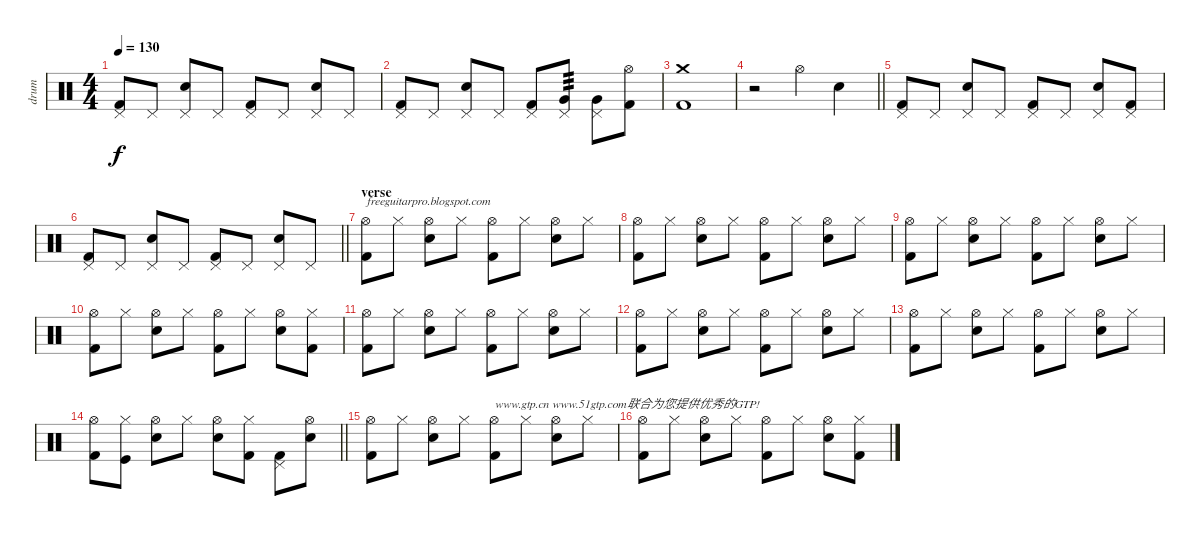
\track ("drum" "drum") {instrument percussion}
\staff {score}
\articulation defaults
\ts (4 4)
\tempo 130
\clef neutral
\ks c
("Pedal Hi-Hat (hit)" "Kick (hit) 2").8{dy f} "Pedal Hi-Hat (hit)".8 ("Pedal Hi-Hat (hit)" "Electric Snare (hit)").8 "Pedal Hi-Hat (hit)".8 ("Pedal Hi-Hat (hit)" "Kick (hit) 2").8 "Pedal Hi-Hat (hit)".8 ("Pedal Hi-Hat (hit)" "Electric Snare (hit)").8 "Pedal Hi-Hat (hit)".8 |
("Pedal Hi-Hat (hit)" "Kick (hit) 2").8 "Pedal Hi-Hat (hit)".8 ("Pedal Hi-Hat (hit)" "Electric Snare (hit)").8 "Pedal Hi-Hat (hit)".8 ("Pedal Hi-Hat (hit)" "Kick (hit) 2").8 ("Very Low Tom (hit)" "Pedal Hi-Hat (hit)").8{tp 3} ("Very Low Tom (hit)" "Pedal Hi-Hat (hit)").8 ("Hi-Hat (open)" "Kick (hit) 2").8 |
("Crash medium (hit)" "Kick (hit) 2").1 |
\barLineRight lightlight
r.2 "Hi-Hat (open)".4 "Electric Snare (hit)".4 |
("Pedal Hi-Hat (hit)" "Kick (hit) 2").8 "Pedal Hi-Hat (hit)".8 ("Pedal Hi-Hat (hit)" "Electric Snare (hit)").8 "Pedal Hi-Hat (hit)".8 ("Pedal Hi-Hat (hit)" "Kick (hit) 2").8 "Pedal Hi-Hat (hit)".8 ("Pedal Hi-Hat (hit)" "Electric Snare (hit)").8 ("Pedal Hi-Hat (hit)" "Kick (hit) 2").8 |
\barLineRight lightlight
("Pedal Hi-Hat (hit)" "Kick (hit) 2").8 "Pedal Hi-Hat (hit)".8 ("Pedal Hi-Hat (hit)" "Electric Snare (hit)").8 "Pedal Hi-Hat (hit)".8 ("Pedal Hi-Hat (hit)" "Kick (hit) 2").8 "Pedal Hi-Hat (hit)".8 ("Pedal Hi-Hat (hit)" "Electric Snare (hit)").8 "Pedal Hi-Hat (hit)".8 |
\section ("" "verse")
("Hi-Hat (open)" "Kick (hit) 2").8{txt "freeguitarpro.blogspot.com"} "Hi-Hat (closed)".8 ("Hi-Hat (open)" "Electric Snare (hit)").8 "Hi-Hat (closed)".8 ("Hi-Hat (open)" "Kick (hit) 2").8 "Hi-Hat (closed)".8 ("Hi-Hat (open)" "Electric Snare (hit)").8 "Hi-Hat (closed)".8 |
("Hi-Hat (open)" "Kick (hit) 2").8 "Hi-Hat (closed)".8 ("Hi-Hat (open)" "Electric Snare (hit)").8 "Hi-Hat (closed)".8 ("Hi-Hat (open)" "Kick (hit) 2").8 "Hi-Hat (closed)".8 ("Hi-Hat (open)" "Electric Snare (hit)").8 "Hi-Hat (closed)".8 |
("Hi-Hat (open)" "Kick (hit) 2").8 "Hi-Hat (closed)".8 ("Hi-Hat (open)" "Electric Snare (hit)").8 "Hi-Hat (closed)".8 ("Hi-Hat (open)" "Kick (hit) 2").8 "Hi-Hat (closed)".8 ("Hi-Hat (open)" "Electric Snare (hit)").8 "Hi-Hat (closed)".8 |
("Hi-Hat (open)" "Kick (hit) 2").8 "Hi-Hat (closed)".8 ("Hi-Hat (open)" "Electric Snare (hit)").8 "Hi-Hat (closed)".8 ("Hi-Hat (open)" "Kick (hit) 2").8 "Hi-Hat (closed)".8 ("Hi-Hat (open)" "Electric Snare (hit)").8 ("Hi-Hat (closed)" "Kick (hit) 2").8 |
("Hi-Hat (open)" "Kick (hit) 2").8 "Hi-Hat (closed)".8 ("Hi-Hat (open)" "Electric Snare (hit)").8 "Hi-Hat (closed)".8 ("Hi-Hat (open)" "Kick (hit) 2").8 "Hi-Hat (closed)".8 ("Hi-Hat (open)" "Electric Snare (hit)").8 "Hi-Hat (closed)".8 |
("Hi-Hat (open)" "Kick (hit) 2").8 "Hi-Hat (closed)".8 ("Hi-Hat (open)" "Electric Snare (hit)").8 "Hi-Hat (closed)".8 ("Hi-Hat (open)" "Kick (hit) 2").8 "Hi-Hat (closed)".8 ("Hi-Hat (open)" "Electric Snare (hit)").8 "Hi-Hat (closed)".8 |
("Hi-Hat (open)" "Kick (hit) 2").8 "Hi-Hat (closed)".8 ("Hi-Hat (open)" "Electric Snare (hit)").8 "Hi-Hat (closed)".8 ("Hi-Hat (open)" "Kick (hit) 2").8 "Hi-Hat (closed)".8 ("Hi-Hat (open)" "Electric Snare (hit)").8 "Hi-Hat (closed)".8 |
\barLineRight lightlight
("Hi-Hat (open)" "Kick (hit) 2").8 ("Hi-Hat (closed)" "Kick (hit)").8 ("Hi-Hat (open)" "Electric Snare (hit)").8 "Hi-Hat (closed)".8 ("Hi-Hat (open)" "Electric Snare (hit)").8 ("Hi-Hat (closed)" "Kick (hit) 2").8 ("Pedal Hi-Hat (hit)" "Kick (hit) 2").8 ("Hi-Hat (open)" "Electric Snare (hit)").8 |
("Hi-Hat (open)" "Kick (hit) 2").8 "Hi-Hat (closed)".8 ("Hi-Hat (open)" "Electric Snare (hit)").8 "Hi-Hat (closed)".8 ("Hi-Hat (open)" "Kick (hit) 2").8{txt "www.gtp.cn www.51gtp.com联合为您提供优秀的GTP!"} "Hi-Hat (closed)".8 ("Hi-Hat (open)" "Electric Snare (hit)").8 "Hi-Hat (closed)".8 |
("Hi-Hat (open)" "Kick (hit) 2").8 "Hi-Hat (closed)".8 ("Hi-Hat (open)" "Electric Snare (hit)").8 "Hi-Hat (closed)".8 ("Hi-Hat (open)" "Kick (hit) 2").8 "Hi-Hat (closed)".8 ("Hi-Hat (open)" "Electric Snare (hit)").8 ("Hi-Hat (closed)" "Kick (hit) 2").8
